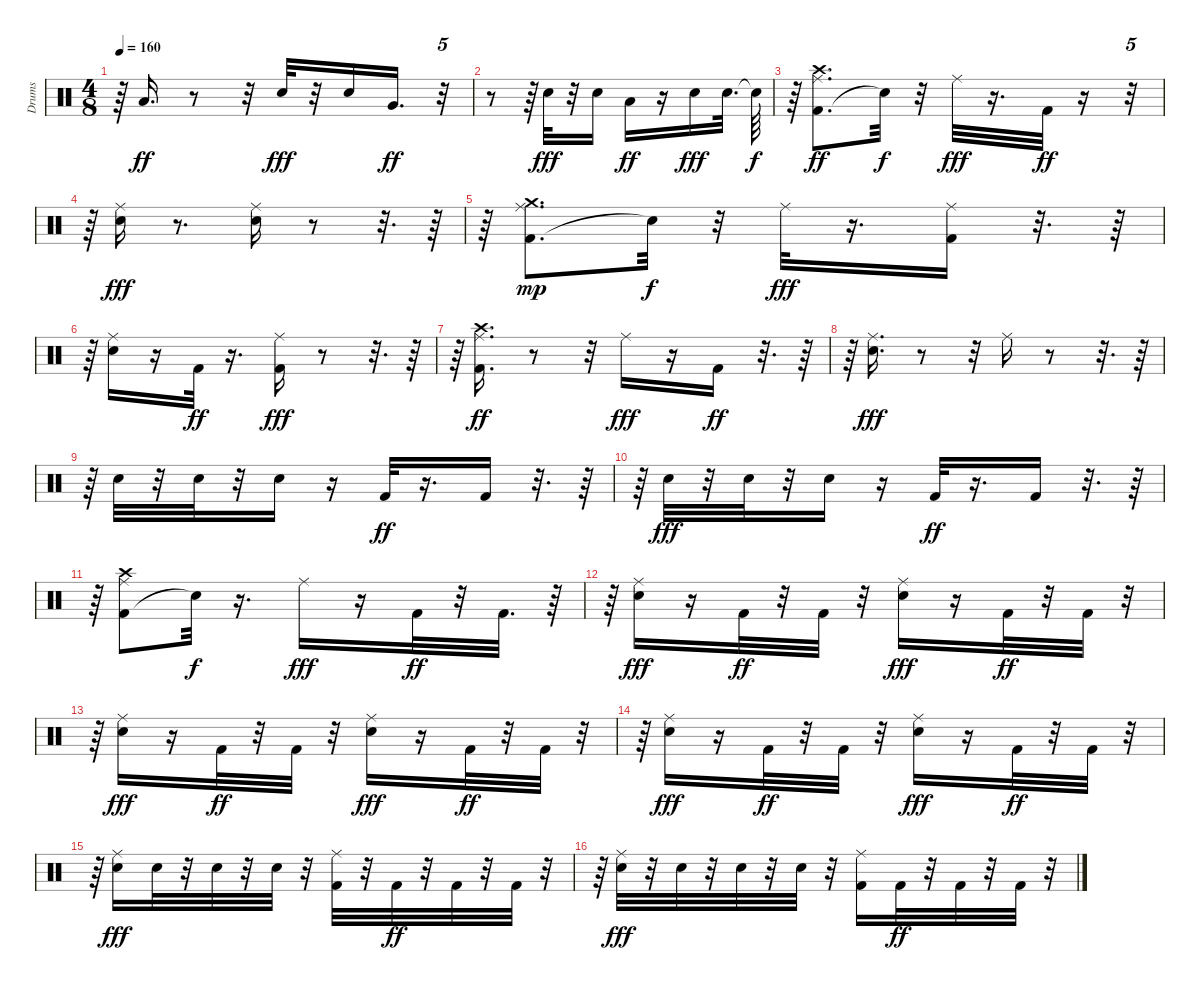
\track ("Drums" "Drums") {instrument percussion}
\staff {score}
\articulation defaults
\ts (4 8)
\tempo 160
\clef neutral
\ks c
r.64{dy f} "Low Tom (hit)".16{d dy ff} r.8 r.32 "Snare (hit) 2".32{dy fff} r.32 "Snare (hit) 2".16 "Very Low Tom (hit)".16{d dy ff} r.32{tu (5 4)} |
r.8 r.64 "Snare (hit) 2".32{dy fff} r.32 "Snare (hit) 2".16 "Low Floor Tom (hit)".16{dy ff} r.16 "Snare (hit) 2".16{dy fff} "Snare (hit) 2".32{d} "Snare (hit)"{t}.64{dy f} |
r.64 ("Kick (hit) 2" "Ride (middle)" "Crash high (hit)").8{d dy ff} "Snare (hit)"{t}.32{dy f} r.32 "Ride (middle)".32{dy fff} r.16{d} "Kick (hit) 2".32{dy ff} r.16 r.32{tu (5 4)} |
r.64 ("Snare (hit) 2" "Ride (middle)").16{dy fff} r.8{d} ("Snare (hit) 2" "Ride (middle)").16 r.8 r.32{d} r.64 |
r.64 ("Kick (hit) 2" "Ride (middle)" "Crash medium (hit)").8{d dy mp} "Snare (hit)"{t}.32{dy f} r.32 "Ride (middle)".32{dy fff} r.16{d} ("Kick (hit) 2" "Ride (middle)").16 r.32{d} r.64 |
r.64 ("Snare (hit) 2" "Ride (middle)").16 r.16 "Kick (hit) 2".32{dy ff} r.16{d} ("Kick (hit) 2" "Ride (middle)").16{dy fff} r.8 r.32{d} r.64 |
r.64 ("Kick (hit) 2" "Ride (middle)" "Crash high (hit)").16{d dy ff} r.8 r.32 "Ride (middle)".16{dy fff} r.16 "Kick (hit) 2".16{dy ff} r.32{d} r.64 |
r.64 ("Snare (hit) 2" "Ride (middle)").16{d dy fff} r.8 r.32 "Ride (middle)".16 r.8 r.32{d} r.64 |
r.64 "Snare (hit) 2".32 r.32 "Snare (hit) 2".32 r.32 "Snare (hit) 2".16 r.16 "Kick (hit) 2".32{dy ff} r.16{d} "Kick (hit) 2".16 r.32{d} r.64 |
r.64 "Snare (hit) 2".32{dy fff} r.32 "Snare (hit) 2".32 r.32 "Snare (hit) 2".16 r.16 "Kick (hit) 2".32{dy ff} r.16{d} "Kick (hit) 2".16 r.32{d} r.64 |
r.64 ("Kick (hit) 2" "Ride (middle)" "Crash high (hit)").8 "Snare (hit)"{t}.32{dy f} r.16{d} "Ride (middle)".16{dy fff} r.16 "Kick (hit) 2".32{dy ff} r.32 "Kick (hit) 2".32{d} r.64 |
r.64 ("Snare (hit) 2" "Ride (middle)").16{dy fff} r.16 "Kick (hit) 2".32{dy ff} r.32 "Kick (hit) 2".32 r.32 ("Snare (hit) 2" "Ride (middle)").16{dy fff} r.16 "Kick (hit) 2".32{dy ff} r.32 "Kick (hit) 2".32 r.32{tu (5 4)} |
r.64 ("Snare (hit) 2" "Ride (middle)").16{dy fff} r.16 "Kick (hit) 2".32{dy ff} r.32 "Kick (hit) 2".32 r.32 ("Snare (hit) 2" "Ride (middle)").16{dy fff} r.16 "Kick (hit) 2".32{dy ff} r.32 "Kick (hit) 2".32 r.32{tu (5 4)} |
r.64 ("Snare (hit) 2" "Ride (middle)").16{dy fff} r.16 "Kick (hit) 2".32{dy ff} r.32 "Kick (hit) 2".32 r.32 ("Snare (hit) 2" "Ride (middle)").16{dy fff} r.16 "Kick (hit) 2".32{dy ff} r.32 "Kick (hit) 2".32 r.32{tu (5 4)} |
r.64 ("Snare (hit) 2" "Ride (middle)").16{dy fff} "Snare (hit) 2".32 r.32 "Snare (hit) 2".32 r.32 "Snare (hit) 2".32 r.32 ("Kick (hit) 2" "Ride (middle)").32 r.32 "Kick (hit) 2".32{dy ff} r.32 "Kick (hit) 2".32 r.32 "Kick (hit) 2".32 r.32{tu (5 4)} |
r.64 ("Snare (hit) 2" "Ride (middle)").32{dy fff} r.32 "Snare (hit) 2".32 r.32 "Snare (hit) 2".32 r.32 "Snare (hit) 2".32 r.32 ("Kick (hit) 2" "Ride (middle)").16 "Kick (hit) 2".32{dy ff} r.32 "Kick (hit) 2".32 r.32 "Kick (hit) 2".32 r.32{tu (5 4)}
